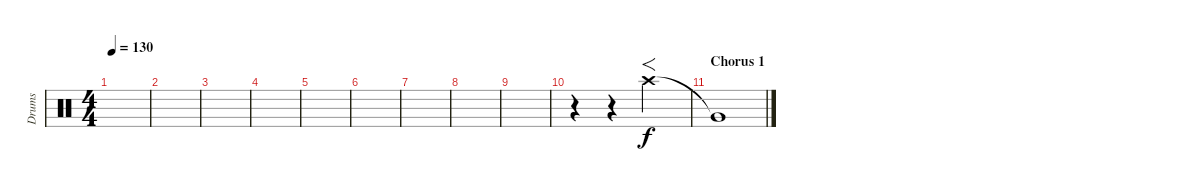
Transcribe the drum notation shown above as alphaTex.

\track ("Drums" "Drums") {instrument percussion}
\staff {score}
\articulation defaults
\ts (4 4)
\tempo 130
\clef neutral
\ks c
|
|
|
|
|
|
|
|
|
r.4 r.4 "Crash high (hit)".2{f} |
\section ("" "Chorus 1")
"Very Low Tom (hit)"{t}.1
